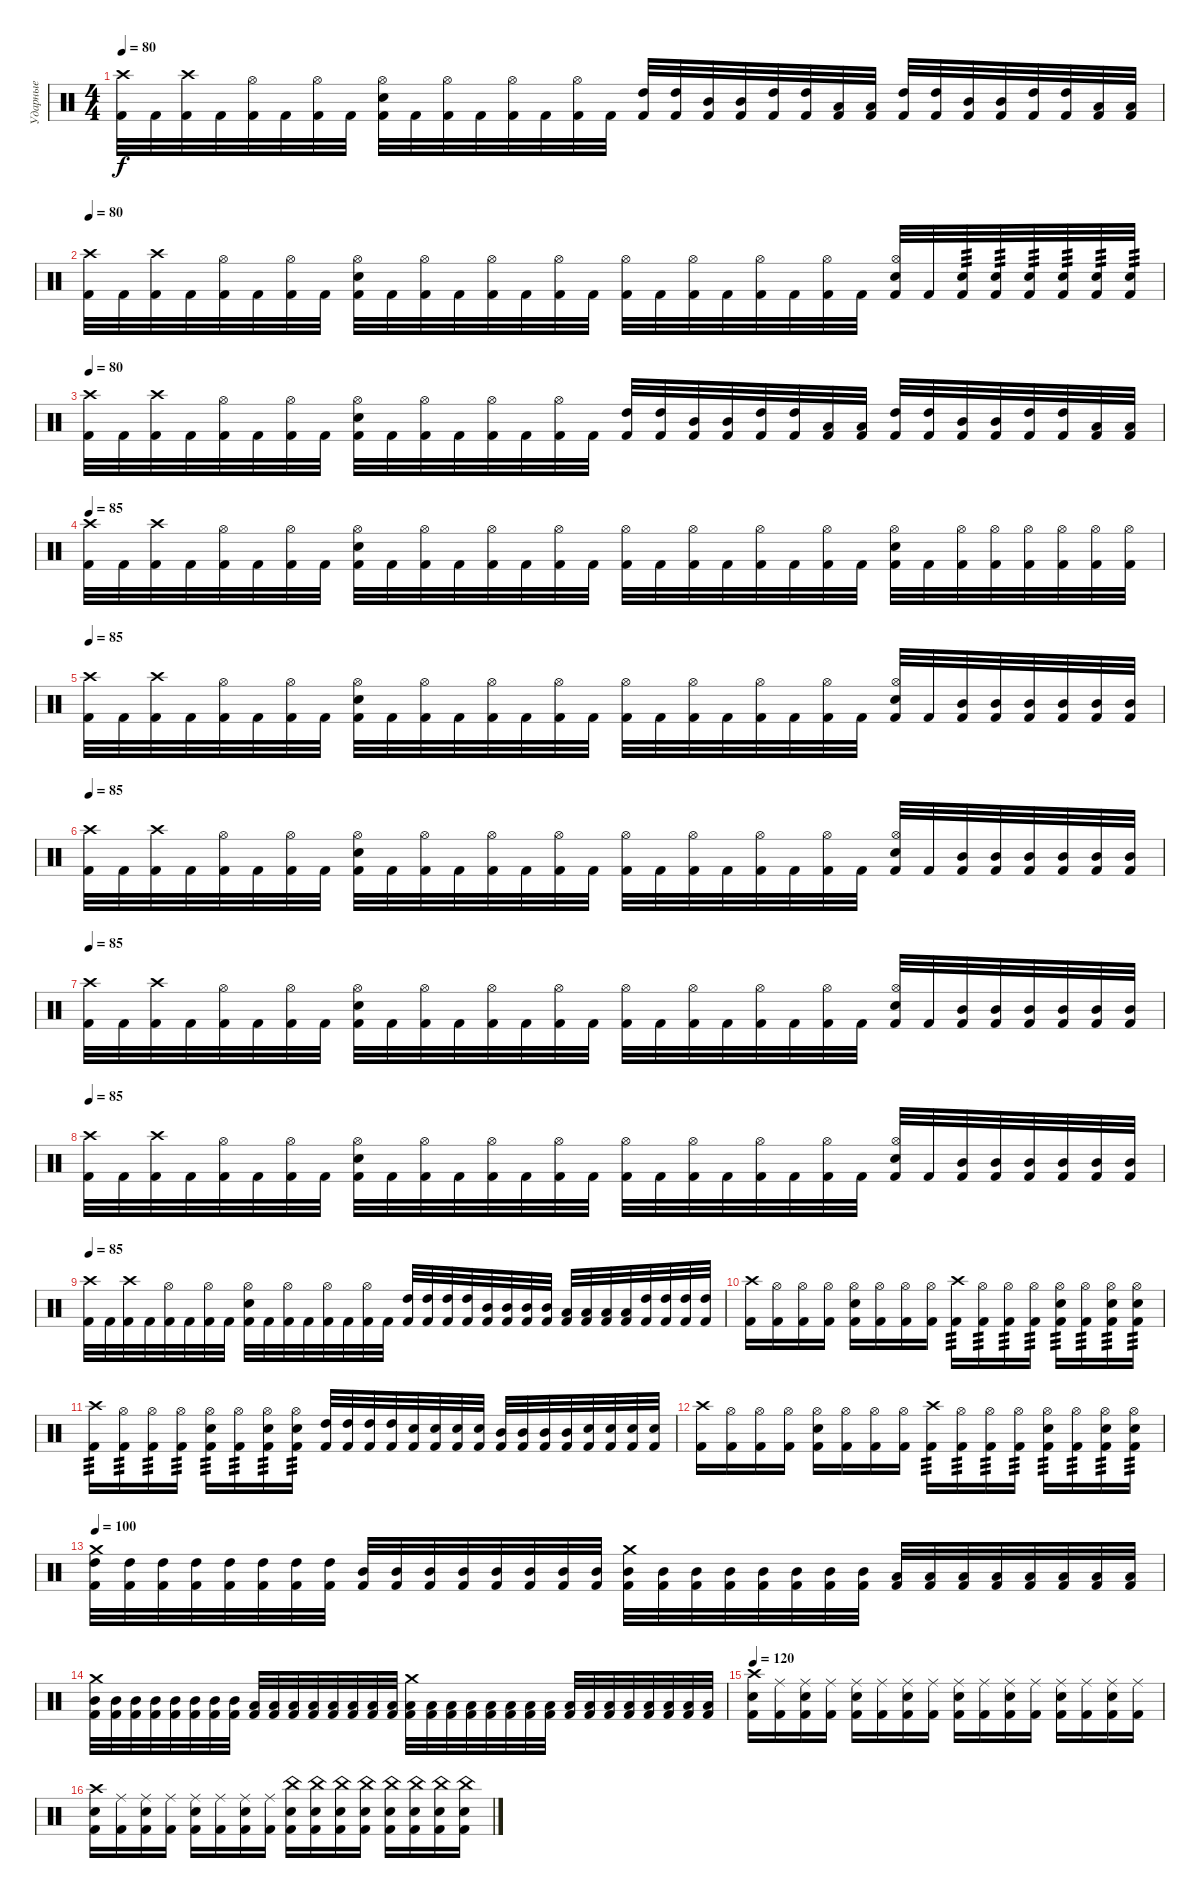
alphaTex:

\track ("Ударные" "Ударные") {instrument percussion}
\staff {score}
\articulation defaults
\ts (4 4)
\tempo 80
\clef neutral
\ks c
("Kick (hit) 2" "Crash high (hit)").32{dy f} "Kick (hit) 2".32 ("Kick (hit) 2" "Crash high (hit)").32 "Kick (hit) 2".32 ("Kick (hit) 2" "Hi-Hat (open)").32 "Kick (hit) 2".32 ("Kick (hit) 2" "Hi-Hat (open)").32 "Kick (hit) 2".32 ("Kick (hit) 2" "Electric Snare (hit)" "Hi-Hat (open)").32 "Kick (hit) 2".32 ("Kick (hit) 2" "Hi-Hat (open)").32 "Kick (hit) 2".32 ("Kick (hit) 2" "Hi-Hat (open)").32 "Kick (hit) 2".32 ("Kick (hit) 2" "Hi-Hat (open)").32 "Kick (hit) 2".32 ("Kick (hit) 2" "High Tom (hit)").32 ("Kick (hit) 2" "High Tom (hit)").32 ("Kick (hit) 2" "Mid Tom (hit)").32 ("Kick (hit) 2" "Mid Tom (hit)").32 ("Kick (hit) 2" "High Tom (hit)").32 ("Kick (hit) 2" "High Tom (hit)").32 ("Kick (hit) 2" "Low Tom (hit)").32 ("Kick (hit) 2" "Low Tom (hit)").32 ("Kick (hit) 2" "High Tom (hit)").32 ("Kick (hit) 2" "High Tom (hit)").32 ("Kick (hit) 2" "Mid Tom (hit)").32 ("Kick (hit) 2" "Mid Tom (hit)").32 ("Kick (hit) 2" "High Tom (hit)").32 ("Kick (hit) 2" "High Tom (hit)").32 ("Kick (hit) 2" "Low Tom (hit)").32 ("Kick (hit) 2" "Low Tom (hit)").32 |
\tempo 80
("Kick (hit) 2" "Crash high (hit)").32 "Kick (hit) 2".32 ("Kick (hit) 2" "Crash high (hit)").32 "Kick (hit) 2".32 ("Kick (hit) 2" "Hi-Hat (open)").32 "Kick (hit) 2".32 ("Kick (hit) 2" "Hi-Hat (open)").32 "Kick (hit) 2".32 ("Kick (hit) 2" "Electric Snare (hit)" "Hi-Hat (open)").32 "Kick (hit) 2".32 ("Kick (hit) 2" "Hi-Hat (open)").32 "Kick (hit) 2".32 ("Kick (hit) 2" "Hi-Hat (open)").32 "Kick (hit) 2".32 ("Kick (hit) 2" "Hi-Hat (open)").32 "Kick (hit) 2".32 ("Kick (hit) 2" "Hi-Hat (open)").32 "Kick (hit) 2".32 ("Kick (hit) 2" "Hi-Hat (open)").32 "Kick (hit) 2".32 ("Kick (hit) 2" "Hi-Hat (open)").32 "Kick (hit) 2".32 ("Kick (hit) 2" "Hi-Hat (open)").32 "Kick (hit) 2".32 ("Kick (hit) 2" "Electric Snare (hit)" "Hi-Hat (open)").32 "Kick (hit) 2".32 ("Kick (hit) 2" "Electric Snare (hit)").32{tp 3} ("Kick (hit) 2" "Electric Snare (hit)").32{tp 3} ("Kick (hit) 2" "Electric Snare (hit)").32{tp 3} ("Kick (hit) 2" "Electric Snare (hit)").32{tp 3} ("Kick (hit) 2" "Electric Snare (hit)").32{tp 3} ("Kick (hit) 2" "Electric Snare (hit)").32{tp 3} |
\tempo 80
("Kick (hit) 2" "Crash high (hit)").32 "Kick (hit) 2".32 ("Kick (hit) 2" "Crash high (hit)").32 "Kick (hit) 2".32 ("Kick (hit) 2" "Hi-Hat (open)").32 "Kick (hit) 2".32 ("Kick (hit) 2" "Hi-Hat (open)").32 "Kick (hit) 2".32 ("Kick (hit) 2" "Electric Snare (hit)" "Hi-Hat (open)").32 "Kick (hit) 2".32 ("Kick (hit) 2" "Hi-Hat (open)").32 "Kick (hit) 2".32 ("Kick (hit) 2" "Hi-Hat (open)").32 "Kick (hit) 2".32 ("Kick (hit) 2" "Hi-Hat (open)").32 "Kick (hit) 2".32 ("Kick (hit) 2" "High Tom (hit)").32 ("Kick (hit) 2" "High Tom (hit)").32 ("Kick (hit) 2" "Mid Tom (hit)").32 ("Kick (hit) 2" "Mid Tom (hit)").32 ("Kick (hit) 2" "High Tom (hit)").32 ("Kick (hit) 2" "High Tom (hit)").32 ("Kick (hit) 2" "Low Tom (hit)").32 ("Kick (hit) 2" "Low Tom (hit)").32 ("Kick (hit) 2" "High Tom (hit)").32 ("Kick (hit) 2" "High Tom (hit)").32 ("Kick (hit) 2" "Mid Tom (hit)").32 ("Kick (hit) 2" "Mid Tom (hit)").32 ("Kick (hit) 2" "High Tom (hit)").32 ("Kick (hit) 2" "High Tom (hit)").32 ("Kick (hit) 2" "Low Tom (hit)").32 ("Kick (hit) 2" "Low Tom (hit)").32 |
\tempo 85
("Kick (hit) 2" "Crash high (hit)").32 "Kick (hit) 2".32 ("Kick (hit) 2" "Crash high (hit)").32 "Kick (hit) 2".32 ("Kick (hit) 2" "Hi-Hat (open)").32 "Kick (hit) 2".32 ("Kick (hit) 2" "Hi-Hat (open)").32 "Kick (hit) 2".32 ("Kick (hit) 2" "Electric Snare (hit)" "Hi-Hat (open)").32 "Kick (hit) 2".32 ("Kick (hit) 2" "Hi-Hat (open)").32 "Kick (hit) 2".32 ("Kick (hit) 2" "Hi-Hat (open)").32 "Kick (hit) 2".32 ("Kick (hit) 2" "Hi-Hat (open)").32 "Kick (hit) 2".32 ("Kick (hit) 2" "Hi-Hat (open)").32 "Kick (hit) 2".32 ("Kick (hit) 2" "Hi-Hat (open)").32 "Kick (hit) 2".32 ("Kick (hit) 2" "Hi-Hat (open)").32 "Kick (hit) 2".32 ("Kick (hit) 2" "Hi-Hat (open)").32 "Kick (hit) 2".32 ("Kick (hit) 2" "Electric Snare (hit)" "Hi-Hat (open)").32 "Kick (hit) 2".32 ("Kick (hit) 2" "Hi-Hat (open)").32 ("Kick (hit) 2" "Hi-Hat (open)").32 ("Kick (hit) 2" "Hi-Hat (open)").32 ("Kick (hit) 2" "Hi-Hat (open)").32 ("Kick (hit) 2" "Hi-Hat (open)").32 ("Kick (hit) 2" "Hi-Hat (open)").32 |
\tempo 85
("Kick (hit) 2" "Crash high (hit)").32 "Kick (hit) 2".32 ("Kick (hit) 2" "Crash high (hit)").32 "Kick (hit) 2".32 ("Kick (hit) 2" "Hi-Hat (open)").32 "Kick (hit) 2".32 ("Kick (hit) 2" "Hi-Hat (open)").32 "Kick (hit) 2".32 ("Kick (hit) 2" "Electric Snare (hit)" "Hi-Hat (open)").32 "Kick (hit) 2".32 ("Kick (hit) 2" "Hi-Hat (open)").32 "Kick (hit) 2".32 ("Kick (hit) 2" "Hi-Hat (open)").32 "Kick (hit) 2".32 ("Kick (hit) 2" "Hi-Hat (open)").32 "Kick (hit) 2".32 ("Kick (hit) 2" "Hi-Hat (open)").32 "Kick (hit) 2".32 ("Kick (hit) 2" "Hi-Hat (open)").32 "Kick (hit) 2".32 ("Kick (hit) 2" "Hi-Hat (open)").32 "Kick (hit) 2".32 ("Kick (hit) 2" "Hi-Hat (open)").32 "Kick (hit) 2".32 ("Kick (hit) 2" "Electric Snare (hit)" "Hi-Hat (open)").32 "Kick (hit) 2".32 ("Kick (hit) 2" "Mid Tom (hit)").32 ("Kick (hit) 2" "Mid Tom (hit)").32 ("Kick (hit) 2" "Mid Tom (hit)").32 ("Kick (hit) 2" "Mid Tom (hit)").32 ("Kick (hit) 2" "Mid Tom (hit)").32 ("Kick (hit) 2" "Mid Tom (hit)").32 |
\tempo 85
("Kick (hit) 2" "Crash high (hit)").32 "Kick (hit) 2".32 ("Kick (hit) 2" "Crash high (hit)").32 "Kick (hit) 2".32 ("Kick (hit) 2" "Hi-Hat (open)").32 "Kick (hit) 2".32 ("Kick (hit) 2" "Hi-Hat (open)").32 "Kick (hit) 2".32 ("Kick (hit) 2" "Electric Snare (hit)" "Hi-Hat (open)").32 "Kick (hit) 2".32 ("Kick (hit) 2" "Hi-Hat (open)").32 "Kick (hit) 2".32 ("Kick (hit) 2" "Hi-Hat (open)").32 "Kick (hit) 2".32 ("Kick (hit) 2" "Hi-Hat (open)").32 "Kick (hit) 2".32 ("Kick (hit) 2" "Hi-Hat (open)").32 "Kick (hit) 2".32 ("Kick (hit) 2" "Hi-Hat (open)").32 "Kick (hit) 2".32 ("Kick (hit) 2" "Hi-Hat (open)").32 "Kick (hit) 2".32 ("Kick (hit) 2" "Hi-Hat (open)").32 "Kick (hit) 2".32 ("Kick (hit) 2" "Electric Snare (hit)" "Hi-Hat (open)").32 "Kick (hit) 2".32 ("Kick (hit) 2" "Mid Tom (hit)").32 ("Kick (hit) 2" "Mid Tom (hit)").32 ("Kick (hit) 2" "Mid Tom (hit)").32 ("Kick (hit) 2" "Mid Tom (hit)").32 ("Kick (hit) 2" "Mid Tom (hit)").32 ("Kick (hit) 2" "Mid Tom (hit)").32 |
\tempo 85
("Kick (hit) 2" "Crash high (hit)").32 "Kick (hit) 2".32 ("Kick (hit) 2" "Crash high (hit)").32 "Kick (hit) 2".32 ("Kick (hit) 2" "Hi-Hat (open)").32 "Kick (hit) 2".32 ("Kick (hit) 2" "Hi-Hat (open)").32 "Kick (hit) 2".32 ("Kick (hit) 2" "Electric Snare (hit)" "Hi-Hat (open)").32 "Kick (hit) 2".32 ("Kick (hit) 2" "Hi-Hat (open)").32 "Kick (hit) 2".32 ("Kick (hit) 2" "Hi-Hat (open)").32 "Kick (hit) 2".32 ("Kick (hit) 2" "Hi-Hat (open)").32 "Kick (hit) 2".32 ("Kick (hit) 2" "Hi-Hat (open)").32 "Kick (hit) 2".32 ("Kick (hit) 2" "Hi-Hat (open)").32 "Kick (hit) 2".32 ("Kick (hit) 2" "Hi-Hat (open)").32 "Kick (hit) 2".32 ("Kick (hit) 2" "Hi-Hat (open)").32 "Kick (hit) 2".32 ("Kick (hit) 2" "Electric Snare (hit)" "Hi-Hat (open)").32 "Kick (hit) 2".32 ("Kick (hit) 2" "Mid Tom (hit)").32 ("Kick (hit) 2" "Mid Tom (hit)").32 ("Kick (hit) 2" "Mid Tom (hit)").32 ("Kick (hit) 2" "Mid Tom (hit)").32 ("Kick (hit) 2" "Mid Tom (hit)").32 ("Kick (hit) 2" "Mid Tom (hit)").32 |
\tempo 85
("Kick (hit) 2" "Crash high (hit)").32 "Kick (hit) 2".32 ("Kick (hit) 2" "Crash high (hit)").32 "Kick (hit) 2".32 ("Kick (hit) 2" "Hi-Hat (open)").32 "Kick (hit) 2".32 ("Kick (hit) 2" "Hi-Hat (open)").32 "Kick (hit) 2".32 ("Kick (hit) 2" "Electric Snare (hit)" "Hi-Hat (open)").32 "Kick (hit) 2".32 ("Kick (hit) 2" "Hi-Hat (open)").32 "Kick (hit) 2".32 ("Kick (hit) 2" "Hi-Hat (open)").32 "Kick (hit) 2".32 ("Kick (hit) 2" "Hi-Hat (open)").32 "Kick (hit) 2".32 ("Kick (hit) 2" "Hi-Hat (open)").32 "Kick (hit) 2".32 ("Kick (hit) 2" "Hi-Hat (open)").32 "Kick (hit) 2".32 ("Kick (hit) 2" "Hi-Hat (open)").32 "Kick (hit) 2".32 ("Kick (hit) 2" "Hi-Hat (open)").32 "Kick (hit) 2".32 ("Kick (hit) 2" "Electric Snare (hit)" "Hi-Hat (open)").32 "Kick (hit) 2".32 ("Kick (hit) 2" "Mid Tom (hit)").32 ("Kick (hit) 2" "Mid Tom (hit)").32 ("Kick (hit) 2" "Mid Tom (hit)").32 ("Kick (hit) 2" "Mid Tom (hit)").32 ("Kick (hit) 2" "Mid Tom (hit)").32 ("Kick (hit) 2" "Mid Tom (hit)").32 |
\tempo 85
("Kick (hit) 2" "Crash high (hit)").32 "Kick (hit) 2".32 ("Kick (hit) 2" "Crash high (hit)").32 "Kick (hit) 2".32 ("Kick (hit) 2" "Hi-Hat (open)").32 "Kick (hit) 2".32 ("Kick (hit) 2" "Hi-Hat (open)").32 "Kick (hit) 2".32 ("Kick (hit) 2" "Electric Snare (hit)" "Hi-Hat (open)").32 "Kick (hit) 2".32 ("Kick (hit) 2" "Hi-Hat (open)").32 "Kick (hit) 2".32 ("Kick (hit) 2" "Hi-Hat (open)").32 "Kick (hit) 2".32 ("Kick (hit) 2" "Hi-Hat (open)").32 "Kick (hit) 2".32 ("Kick (hit) 2" "High Tom (hit)").32 ("Kick (hit) 2" "High Tom (hit)").32 ("Kick (hit) 2" "High Tom (hit)").32 ("Kick (hit) 2" "High Tom (hit)").32 ("Kick (hit) 2" "Mid Tom (hit)").32 ("Kick (hit) 2" "Mid Tom (hit)").32 ("Kick (hit) 2" "Mid Tom (hit)").32 ("Kick (hit) 2" "Mid Tom (hit)").32 ("Kick (hit) 2" "Low Tom (hit)").32 ("Kick (hit) 2" "Low Tom (hit)").32 ("Kick (hit) 2" "Low Tom (hit)").32 ("Kick (hit) 2" "Low Tom (hit)").32 ("Kick (hit) 2" "High Tom (hit)").32 ("Kick (hit) 2" "High Tom (hit)").32 ("Kick (hit) 2" "High Tom (hit)").32 ("Kick (hit) 2" "High Tom (hit)").32 |
("Crash high (hit)" "Kick (hit) 2").16 ("Hi-Hat (open)" "Kick (hit) 2").16 ("Hi-Hat (open)" "Kick (hit) 2").16 ("Hi-Hat (open)" "Kick (hit) 2").16 ("Hi-Hat (open)" "Electric Snare (hit)" "Kick (hit) 2").16 ("Hi-Hat (open)" "Kick (hit) 2").16 ("Hi-Hat (open)" "Kick (hit) 2").16 ("Hi-Hat (open)" "Kick (hit) 2").16 ("Crash high (hit)" "Kick (hit) 2").16{tp 3} ("Hi-Hat (open)" "Kick (hit) 2").16{tp 3} ("Hi-Hat (open)" "Kick (hit) 2").16{tp 3} ("Hi-Hat (open)" "Kick (hit) 2").16{tp 3} ("Hi-Hat (open)" "Electric Snare (hit)" "Kick (hit) 2").16{tp 3} ("Hi-Hat (open)" "Kick (hit) 2").16{tp 3} ("Hi-Hat (open)" "Electric Snare (hit)" "Kick (hit) 2").16{tp 3} ("Hi-Hat (open)" "Electric Snare (hit)" "Kick (hit) 2").16{tp 3} |
("Crash high (hit)" "Kick (hit) 2").16{tp 3} ("Hi-Hat (open)" "Kick (hit) 2").16{tp 3} ("Hi-Hat (open)" "Kick (hit) 2").16{tp 3} ("Hi-Hat (open)" "Kick (hit) 2").16{tp 3} ("Hi-Hat (open)" "Electric Snare (hit)" "Kick (hit) 2").16{tp 3} ("Hi-Hat (open)" "Kick (hit) 2").16{tp 3} ("Hi-Hat (open)" "Electric Snare (hit)" "Kick (hit) 2").16{tp 3} ("Hi-Hat (open)" "Electric Snare (hit)" "Kick (hit) 2").16{tp 3} ("High Tom (hit)" "Kick (hit) 2").32 ("High Tom (hit)" "Kick (hit) 2").32 ("High Tom (hit)" "Kick (hit) 2").32 ("High Tom (hit)" "Kick (hit) 2").32 ("Electric Snare (hit)" "Kick (hit) 2").32 ("Electric Snare (hit)" "Kick (hit) 2").32 ("Electric Snare (hit)" "Kick (hit) 2").32 ("Electric Snare (hit)" "Kick (hit) 2").32 ("Mid Tom (hit)" "Kick (hit) 2").32 ("Mid Tom (hit)" "Kick (hit) 2").32 ("Mid Tom (hit)" "Kick (hit) 2").32 ("Mid Tom (hit)" "Kick (hit) 2").32 ("Electric Snare (hit)" "Kick (hit) 2").32 ("Electric Snare (hit)" "Kick (hit) 2").32 ("Electric Snare (hit)" "Kick (hit) 2").32 ("Electric Snare (hit)" "Kick (hit) 2").32 |
("Crash high (hit)" "Kick (hit) 2").16 ("Hi-Hat (open)" "Kick (hit) 2").16 ("Hi-Hat (open)" "Kick (hit) 2").16 ("Hi-Hat (open)" "Kick (hit) 2").16 ("Hi-Hat (open)" "Electric Snare (hit)" "Kick (hit) 2").16 ("Hi-Hat (open)" "Kick (hit) 2").16 ("Hi-Hat (open)" "Kick (hit) 2").16 ("Hi-Hat (open)" "Kick (hit) 2").16 ("Crash high (hit)" "Kick (hit) 2").16{tp 3} ("Hi-Hat (open)" "Kick (hit) 2").16{tp 3} ("Hi-Hat (open)" "Kick (hit) 2").16{tp 3} ("Hi-Hat (open)" "Kick (hit) 2").16{tp 3} ("Hi-Hat (open)" "Electric Snare (hit)" "Kick (hit) 2").16{tp 3} ("Hi-Hat (open)" "Kick (hit) 2").16{tp 3} ("Hi-Hat (open)" "Electric Snare (hit)" "Kick (hit) 2").16{tp 3} ("Hi-Hat (open)" "Electric Snare (hit)" "Kick (hit) 2").16{tp 3} |
\tempo 100
("Crash medium (hit)" "High Tom (hit)" "Kick (hit) 2").32 ("High Tom (hit)" "Kick (hit) 2").32 ("High Tom (hit)" "Kick (hit) 2").32 ("High Tom (hit)" "Kick (hit) 2").32 ("High Tom (hit)" "Kick (hit) 2").32 ("High Tom (hit)" "Kick (hit) 2").32 ("High Tom (hit)" "Kick (hit) 2").32 ("High Tom (hit)" "Kick (hit) 2").32 ("Mid Tom (hit)" "Kick (hit) 2").32 ("Mid Tom (hit)" "Kick (hit) 2").32 ("Mid Tom (hit)" "Kick (hit) 2").32 ("Mid Tom (hit)" "Kick (hit) 2").32 ("Mid Tom (hit)" "Kick (hit) 2").32 ("Mid Tom (hit)" "Kick (hit) 2").32 ("Mid Tom (hit)" "Kick (hit) 2").32 ("Mid Tom (hit)" "Kick (hit) 2").32 ("Crash medium (hit)" "Mid Tom (hit)" "Kick (hit) 2").32 ("Mid Tom (hit)" "Kick (hit) 2").32 ("Mid Tom (hit)" "Kick (hit) 2").32 ("Mid Tom (hit)" "Kick (hit) 2").32 ("Mid Tom (hit)" "Kick (hit) 2").32 ("Mid Tom (hit)" "Kick (hit) 2").32 ("Mid Tom (hit)" "Kick (hit) 2").32 ("Mid Tom (hit)" "Kick (hit) 2").32 ("Low Tom (hit)" "Kick (hit) 2").32 ("Low Tom (hit)" "Kick (hit) 2").32 ("Low Tom (hit)" "Kick (hit) 2").32 ("Low Tom (hit)" "Kick (hit) 2").32 ("Low Tom (hit)" "Kick (hit) 2").32 ("Low Tom (hit)" "Kick (hit) 2").32 ("Low Tom (hit)" "Kick (hit) 2").32 ("Low Tom (hit)" "Kick (hit) 2").32 |
("Crash medium (hit)" "Mid Tom (hit)" "Kick (hit) 2").32 ("Mid Tom (hit)" "Kick (hit) 2").32 ("Mid Tom (hit)" "Kick (hit) 2").32 ("Mid Tom (hit)" "Kick (hit) 2").32 ("Mid Tom (hit)" "Kick (hit) 2").32 ("Mid Tom (hit)" "Kick (hit) 2").32 ("Mid Tom (hit)" "Kick (hit) 2").32 ("Mid Tom (hit)" "Kick (hit) 2").32 ("Low Tom (hit)" "Kick (hit) 2").32 ("Low Tom (hit)" "Kick (hit) 2").32 ("Low Tom (hit)" "Kick (hit) 2").32 ("Low Tom (hit)" "Kick (hit) 2").32 ("Low Tom (hit)" "Kick (hit) 2").32 ("Low Tom (hit)" "Kick (hit) 2").32 ("Low Tom (hit)" "Kick (hit) 2").32 ("Low Tom (hit)" "Kick (hit) 2").32 ("Crash medium (hit)" "Low Tom (hit)" "Kick (hit) 2").32 ("Low Tom (hit)" "Kick (hit) 2").32 ("Low Tom (hit)" "Kick (hit) 2").32 ("Low Tom (hit)" "Kick (hit) 2").32 ("Low Tom (hit)" "Kick (hit) 2").32 ("Low Tom (hit)" "Kick (hit) 2").32 ("Low Tom (hit)" "Kick (hit) 2").32 ("Low Tom (hit)" "Kick (hit) 2").32 ("Low Floor Tom (hit)" "Kick (hit) 2").32 ("Low Floor Tom (hit)" "Kick (hit) 2").32 ("Low Floor Tom (hit)" "Kick (hit) 2").32 ("Low Floor Tom (hit)" "Kick (hit) 2").32 ("Low Floor Tom (hit)" "Kick (hit) 2").32 ("Low Floor Tom (hit)" "Kick (hit) 2").32 ("Low Floor Tom (hit)" "Kick (hit) 2").32 ("Low Floor Tom (hit)" "Kick (hit) 2").32 |
\tempo 120
("Crash high (hit)" "Electric Snare (hit)" "Kick (hit) 2").16 ("Ride (middle)" "Kick (hit) 2").16 ("Ride (middle)" "Electric Snare (hit)" "Kick (hit) 2").16 ("Ride (middle)" "Kick (hit) 2").16 ("Ride (middle)" "Electric Snare (hit)" "Kick (hit) 2").16 ("Ride (middle)" "Kick (hit) 2").16 ("Ride (middle)" "Electric Snare (hit)" "Kick (hit) 2").16 ("Ride (middle)" "Kick (hit) 2").16 ("Ride (middle)" "Electric Snare (hit)" "Kick (hit) 2").16 ("Ride (middle)" "Kick (hit) 2").16 ("Ride (middle)" "Electric Snare (hit)" "Kick (hit) 2").16 ("Ride (middle)" "Kick (hit) 2").16 ("Ride (middle)" "Electric Snare (hit)" "Kick (hit) 2").16 ("Ride (middle)" "Kick (hit) 2").16 ("Ride (middle)" "Electric Snare (hit)" "Kick (hit) 2").16 ("Ride (middle)" "Kick (hit) 2").16 |
("Crash high (hit)" "Electric Snare (hit)" "Kick (hit) 2").16 ("Ride (middle)" "Kick (hit) 2").16 ("Ride (middle)" "Electric Snare (hit)" "Kick (hit) 2").16 ("Ride (middle)" "Kick (hit) 2").16 ("Ride (middle)" "Electric Snare (hit)" "Kick (hit) 2").16 ("Ride (middle)" "Kick (hit) 2").16 ("Ride (middle)" "Electric Snare (hit)" "Kick (hit) 2").16 ("Ride (middle)" "Kick (hit) 2").16 ("China (hit)" "Electric Snare (hit)" "Kick (hit) 2").16 ("China (hit)" "Electric Snare (hit)" "Kick (hit) 2").16 ("China (hit)" "Electric Snare (hit)" "Kick (hit) 2").16 ("China (hit)" "Electric Snare (hit)" "Kick (hit) 2").16 ("China (hit)" "Electric Snare (hit)" "Kick (hit) 2").16 ("China (hit)" "Electric Snare (hit)" "Kick (hit) 2").16 ("China (hit)" "Electric Snare (hit)" "Kick (hit) 2").16 ("China (hit)" "Electric Snare (hit)" "Kick (hit) 2").16
